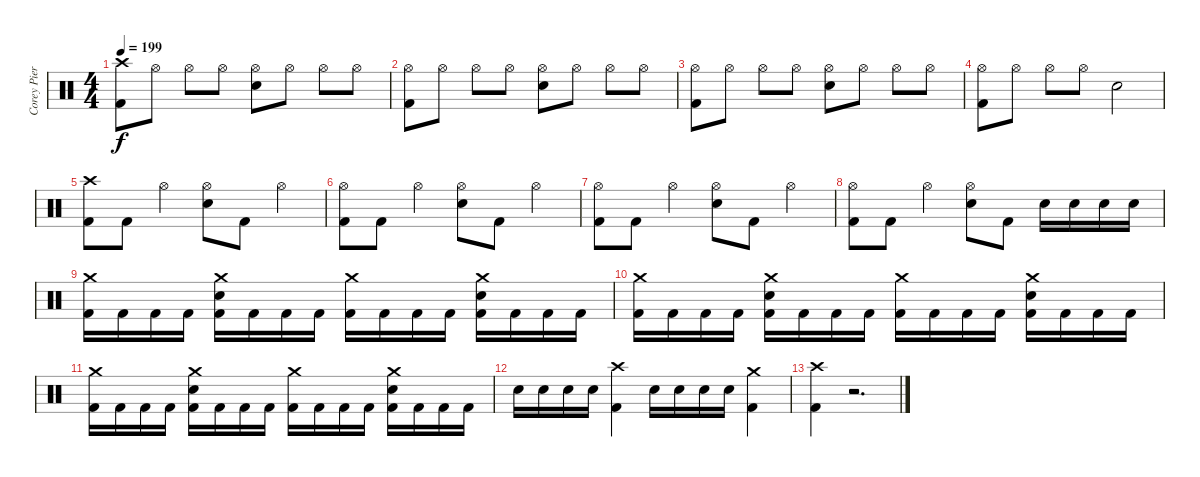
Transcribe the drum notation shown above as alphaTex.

\track ("Corey Pierce (Drums)" "Corey Pier") {instrument percussion}
\staff {score}
\articulation defaults
\ts (4 4)
\tempo 199
\clef neutral
\ks c
("Crash high (hit)" "Kick (hit) 2").8{dy f} "Hi-Hat (open)".8 "Hi-Hat (open)".8 "Hi-Hat (open)".8 ("Hi-Hat (open)" "Snare (hit) 2").8 "Hi-Hat (open)".8 "Hi-Hat (open)".8 "Hi-Hat (open)".8 |
("Hi-Hat (open)" "Kick (hit) 2").8 "Hi-Hat (open)".8 "Hi-Hat (open)".8 "Hi-Hat (open)".8 ("Hi-Hat (open)" "Snare (hit) 2").8 "Hi-Hat (open)".8 "Hi-Hat (open)".8 "Hi-Hat (open)".8 |
("Hi-Hat (open)" "Kick (hit) 2").8 "Hi-Hat (open)".8 "Hi-Hat (open)".8 "Hi-Hat (open)".8 ("Hi-Hat (open)" "Snare (hit) 2").8 "Hi-Hat (open)".8 "Hi-Hat (open)".8 "Hi-Hat (open)".8 |
("Hi-Hat (open)" "Kick (hit) 2").8 "Hi-Hat (open)".8 "Hi-Hat (open)".8 "Hi-Hat (open)".8 "Snare (hit) 2".2 |
("Crash high (hit)" "Kick (hit) 2").8 "Kick (hit) 2".8 "Hi-Hat (open)".4 ("Hi-Hat (open)" "Snare (hit) 2").8 "Kick (hit) 2".8 "Hi-Hat (open)".4 |
("Hi-Hat (open)" "Kick (hit) 2").8 "Kick (hit) 2".8 "Hi-Hat (open)".4 ("Hi-Hat (open)" "Snare (hit) 2").8 "Kick (hit) 2".8 "Hi-Hat (open)".4 |
("Hi-Hat (open)" "Kick (hit) 2").8 "Kick (hit) 2".8 "Hi-Hat (open)".4 ("Hi-Hat (open)" "Snare (hit) 2").8 "Kick (hit) 2".8 "Hi-Hat (open)".4 |
("Hi-Hat (open)" "Kick (hit) 2").8 "Kick (hit) 2".8 "Hi-Hat (open)".4 ("Hi-Hat (open)" "Snare (hit) 2").8 "Kick (hit) 2".8 "Snare (hit) 2".16 "Snare (hit) 2".16 "Snare (hit) 2".16 "Snare (hit) 2".16 |
("Crash medium (hit)" "Kick (hit) 2").16 "Kick (hit) 2".16 "Kick (hit) 2".16 "Kick (hit) 2".16 ("Snare (hit) 2" "Crash medium (hit)" "Kick (hit) 2").16 "Kick (hit) 2".16 "Kick (hit) 2".16 "Kick (hit) 2".16 ("Crash medium (hit)" "Kick (hit) 2").16 "Kick (hit) 2".16 "Kick (hit) 2".16 "Kick (hit) 2".16 ("Snare (hit) 2" "Crash medium (hit)" "Kick (hit) 2").16 "Kick (hit) 2".16 "Kick (hit) 2".16 "Kick (hit) 2".16 |
("Crash medium (hit)" "Kick (hit) 2").16 "Kick (hit) 2".16 "Kick (hit) 2".16 "Kick (hit) 2".16 ("Snare (hit) 2" "Crash medium (hit)" "Kick (hit) 2").16 "Kick (hit) 2".16 "Kick (hit) 2".16 "Kick (hit) 2".16 ("Crash medium (hit)" "Kick (hit) 2").16 "Kick (hit) 2".16 "Kick (hit) 2".16 "Kick (hit) 2".16 ("Snare (hit) 2" "Crash medium (hit)" "Kick (hit) 2").16 "Kick (hit) 2".16 "Kick (hit) 2".16 "Kick (hit) 2".16 |
("Crash medium (hit)" "Kick (hit) 2").16 "Kick (hit) 2".16 "Kick (hit) 2".16 "Kick (hit) 2".16 ("Snare (hit) 2" "Crash medium (hit)" "Kick (hit) 2").16 "Kick (hit) 2".16 "Kick (hit) 2".16 "Kick (hit) 2".16 ("Crash medium (hit)" "Kick (hit) 2").16 "Kick (hit) 2".16 "Kick (hit) 2".16 "Kick (hit) 2".16 ("Snare (hit) 2" "Crash medium (hit)" "Kick (hit) 2").16 "Kick (hit) 2".16 "Kick (hit) 2".16 "Kick (hit) 2".16 |
"Snare (hit) 2".16 "Snare (hit) 2".16 "Snare (hit) 2".16 "Snare (hit) 2".16 ("Crash high (hit)" "Kick (hit) 2").4 "Snare (hit) 2".16 "Snare (hit) 2".16 "Snare (hit) 2".16 "Snare (hit) 2".16 ("Crash medium (hit)" "Kick (hit) 2").4 |
("Crash high (hit)" "Kick (hit) 2").4 r.2{d volume 0}
